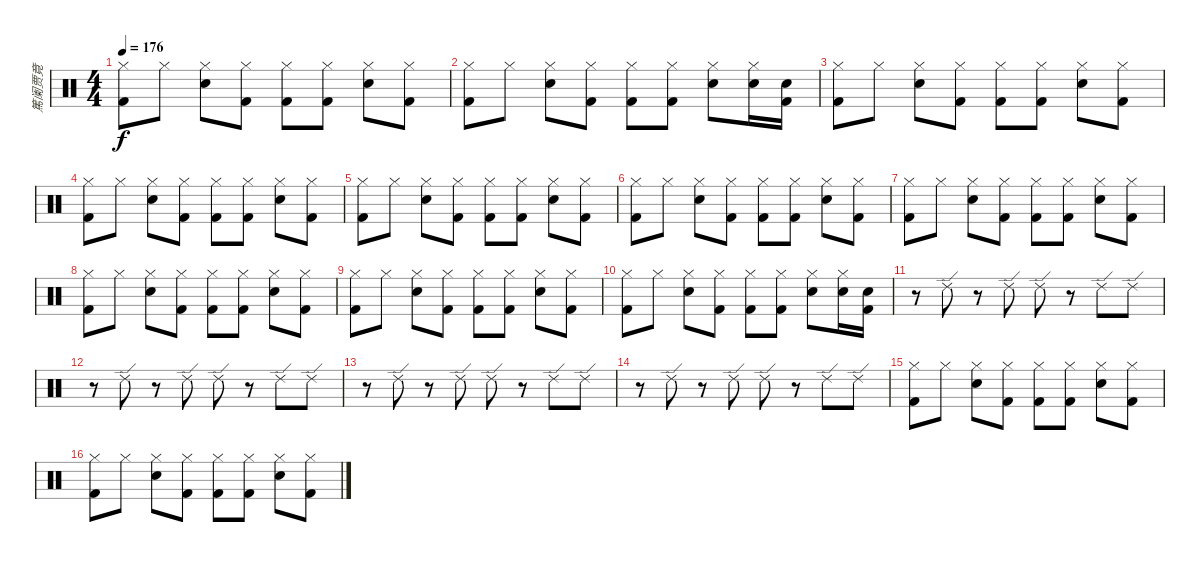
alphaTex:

\track ("篤阑贾竟" "篤阑贾竟") {instrument percussion}
\staff {score}
\articulation defaults
\ts (4 4)
\tempo 176
\clef neutral
\ks c
("Hi-Hat (closed)" "Kick (hit) 2").8{dy f} "Hi-Hat (closed)".8 ("Hi-Hat (closed)" "Snare (hit) 2").8 ("Hi-Hat (closed)" "Kick (hit) 2").8 ("Hi-Hat (closed)" "Kick (hit) 2").8 ("Hi-Hat (closed)" "Kick (hit) 2").8 ("Hi-Hat (closed)" "Snare (hit) 2").8 ("Hi-Hat (closed)" "Kick (hit) 2").8 |
("Hi-Hat (closed)" "Kick (hit) 2").8 "Hi-Hat (closed)".8 ("Hi-Hat (closed)" "Snare (hit) 2").8 ("Hi-Hat (closed)" "Kick (hit) 2").8 ("Hi-Hat (closed)" "Kick (hit) 2").8 ("Hi-Hat (closed)" "Kick (hit) 2").8 ("Hi-Hat (closed)" "Snare (hit) 2").8 ("Hi-Hat (closed)" "Snare (hit) 2").16 ("Snare (hit) 2" "Kick (hit) 2").16 |
("Hi-Hat (closed)" "Kick (hit) 2").8 "Hi-Hat (closed)".8 ("Hi-Hat (closed)" "Snare (hit) 2").8 ("Hi-Hat (closed)" "Kick (hit) 2").8 ("Hi-Hat (closed)" "Kick (hit) 2").8 ("Hi-Hat (closed)" "Kick (hit) 2").8 ("Hi-Hat (closed)" "Snare (hit) 2").8 ("Hi-Hat (closed)" "Kick (hit) 2").8 |
("Hi-Hat (closed)" "Kick (hit) 2").8 "Hi-Hat (closed)".8 ("Hi-Hat (closed)" "Snare (hit) 2").8 ("Hi-Hat (closed)" "Kick (hit) 2").8 ("Hi-Hat (closed)" "Kick (hit) 2").8 ("Hi-Hat (closed)" "Kick (hit) 2").8 ("Hi-Hat (closed)" "Snare (hit) 2").8 ("Hi-Hat (closed)" "Kick (hit) 2").8 |
("Hi-Hat (closed)" "Kick (hit) 2").8 "Hi-Hat (closed)".8 ("Hi-Hat (closed)" "Snare (hit) 2").8 ("Hi-Hat (closed)" "Kick (hit) 2").8 ("Hi-Hat (closed)" "Kick (hit) 2").8 ("Hi-Hat (closed)" "Kick (hit) 2").8 ("Hi-Hat (closed)" "Snare (hit) 2").8 ("Hi-Hat (closed)" "Kick (hit) 2").8 |
("Hi-Hat (closed)" "Kick (hit) 2").8 "Hi-Hat (closed)".8 ("Hi-Hat (closed)" "Snare (hit) 2").8 ("Hi-Hat (closed)" "Kick (hit) 2").8 ("Hi-Hat (closed)" "Kick (hit) 2").8 ("Hi-Hat (closed)" "Kick (hit) 2").8 ("Hi-Hat (closed)" "Snare (hit) 2").8 ("Hi-Hat (closed)" "Kick (hit) 2").8 |
("Hi-Hat (closed)" "Kick (hit) 2").8 "Hi-Hat (closed)".8 ("Hi-Hat (closed)" "Snare (hit) 2").8 ("Hi-Hat (closed)" "Kick (hit) 2").8 ("Hi-Hat (closed)" "Kick (hit) 2").8 ("Hi-Hat (closed)" "Kick (hit) 2").8 ("Hi-Hat (closed)" "Snare (hit) 2").8 ("Hi-Hat (closed)" "Kick (hit) 2").8 |
("Hi-Hat (closed)" "Kick (hit) 2").8 "Hi-Hat (closed)".8 ("Hi-Hat (closed)" "Snare (hit) 2").8 ("Hi-Hat (closed)" "Kick (hit) 2").8 ("Hi-Hat (closed)" "Kick (hit) 2").8 ("Hi-Hat (closed)" "Kick (hit) 2").8 ("Hi-Hat (closed)" "Snare (hit) 2").8 ("Hi-Hat (closed)" "Kick (hit) 2").8 |
("Hi-Hat (closed)" "Kick (hit) 2").8 "Hi-Hat (closed)".8 ("Hi-Hat (closed)" "Snare (hit) 2").8 ("Hi-Hat (closed)" "Kick (hit) 2").8 ("Hi-Hat (closed)" "Kick (hit) 2").8 ("Hi-Hat (closed)" "Kick (hit) 2").8 ("Hi-Hat (closed)" "Snare (hit) 2").8 ("Hi-Hat (closed)" "Kick (hit) 2").8 |
("Hi-Hat (closed)" "Kick (hit) 2").8 "Hi-Hat (closed)".8 ("Hi-Hat (closed)" "Snare (hit) 2").8 ("Hi-Hat (closed)" "Kick (hit) 2").8 ("Hi-Hat (closed)" "Kick (hit) 2").8 ("Hi-Hat (closed)" "Kick (hit) 2").8 ("Hi-Hat (closed)" "Snare (hit) 2").8 ("Hi-Hat (closed)" "Snare (hit) 2").16 ("Snare (hit) 2" "Kick (hit) 2").16 |
r.8 "Ride (edge) 2".8 r.8 "Ride (edge) 2".8 "Ride (edge) 2".8 r.8 "Ride (edge) 2".8 "Ride (edge) 2".8 |
r.8 "Ride (edge) 2".8 r.8 "Ride (edge) 2".8 "Ride (edge) 2".8 r.8 "Ride (edge) 2".8 "Ride (edge) 2".8 |
r.8 "Ride (edge) 2".8 r.8 "Ride (edge) 2".8 "Ride (edge) 2".8 r.8 "Ride (edge) 2".8 "Ride (edge) 2".8 |
r.8 "Ride (edge) 2".8 r.8 "Ride (edge) 2".8 "Ride (edge) 2".8 r.8 "Ride (edge) 2".8 "Ride (edge) 2".8 |
("Hi-Hat (closed)" "Kick (hit) 2").8 "Hi-Hat (closed)".8 ("Hi-Hat (closed)" "Snare (hit) 2").8 ("Hi-Hat (closed)" "Kick (hit) 2").8 ("Hi-Hat (closed)" "Kick (hit) 2").8 ("Hi-Hat (closed)" "Kick (hit) 2").8 ("Hi-Hat (closed)" "Snare (hit) 2").8 ("Hi-Hat (closed)" "Kick (hit) 2").8 |
("Hi-Hat (closed)" "Kick (hit) 2").8 "Hi-Hat (closed)".8 ("Hi-Hat (closed)" "Snare (hit) 2").8 ("Hi-Hat (closed)" "Kick (hit) 2").8 ("Hi-Hat (closed)" "Kick (hit) 2").8 ("Hi-Hat (closed)" "Kick (hit) 2").8 ("Hi-Hat (closed)" "Snare (hit) 2").8 ("Hi-Hat (closed)" "Kick (hit) 2").8
